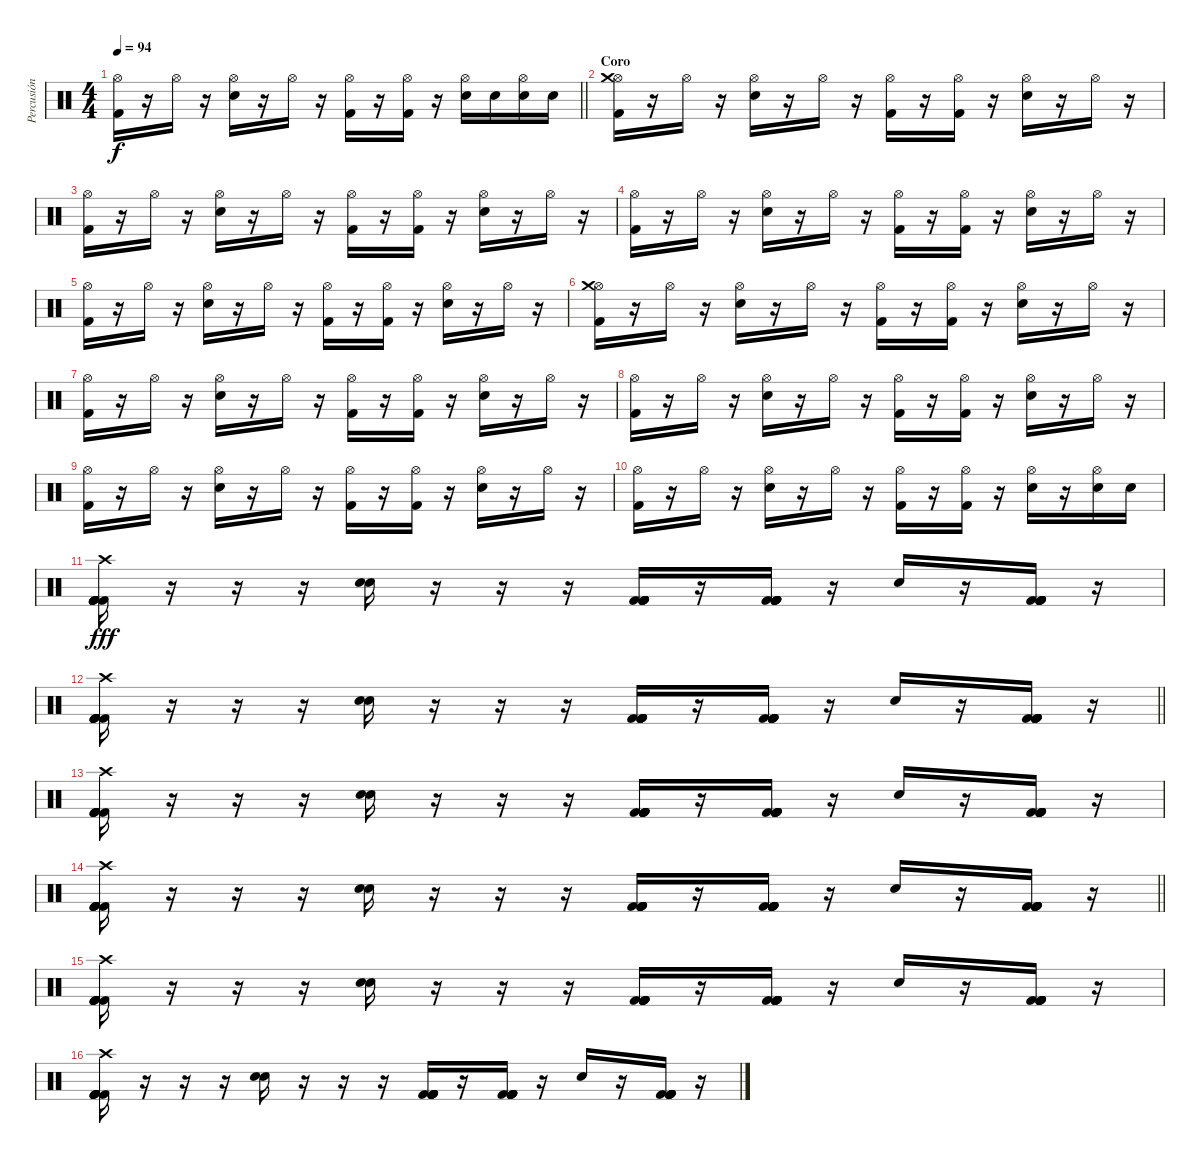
\track ("Percusión" "Percusión") {instrument percussion}
\staff {score}
\articulation defaults
\ts (4 4)
\tempo 94
\clef neutral
\barLineRight lightlight
\ks c
("Hi-Hat (open)" "Kick (hit) 2").16{dy f} r.16 "Hi-Hat (open)".16 r.16 ("Hi-Hat (open)" "Electric Snare (hit)").16 r.16 "Hi-Hat (open)".16 r.16 ("Hi-Hat (open)" "Kick (hit) 2").16 r.16 ("Hi-Hat (open)" "Kick (hit) 2").16 r.16 ("Hi-Hat (open)" "Electric Snare (hit)").16 "Electric Snare (hit)".16 ("Hi-Hat (open)" "Electric Snare (hit)").16 "Electric Snare (hit)".16 |
\section ("" "Coro")
("Hi-Hat (open)" "Kick (hit) 2" "Crash medium (hit)").16 r.16 "Hi-Hat (open)".16 r.16 ("Hi-Hat (open)" "Electric Snare (hit)").16 r.16 "Hi-Hat (open)".16 r.16 ("Hi-Hat (open)" "Kick (hit) 2").16 r.16 ("Hi-Hat (open)" "Kick (hit) 2").16 r.16 ("Hi-Hat (open)" "Electric Snare (hit)").16 r.16 "Hi-Hat (open)".16 r.16 |
("Hi-Hat (open)" "Kick (hit) 2").16 r.16 "Hi-Hat (open)".16 r.16 ("Hi-Hat (open)" "Electric Snare (hit)").16 r.16 "Hi-Hat (open)".16 r.16 ("Hi-Hat (open)" "Kick (hit) 2").16 r.16 ("Hi-Hat (open)" "Kick (hit) 2").16 r.16 ("Hi-Hat (open)" "Electric Snare (hit)").16 r.16 "Hi-Hat (open)".16 r.16 |
("Hi-Hat (open)" "Kick (hit) 2").16 r.16 "Hi-Hat (open)".16 r.16 ("Hi-Hat (open)" "Electric Snare (hit)").16 r.16 "Hi-Hat (open)".16 r.16 ("Hi-Hat (open)" "Kick (hit) 2").16 r.16 ("Hi-Hat (open)" "Kick (hit) 2").16 r.16 ("Hi-Hat (open)" "Electric Snare (hit)").16 r.16 "Hi-Hat (open)".16 r.16 |
("Hi-Hat (open)" "Kick (hit) 2").16 r.16 "Hi-Hat (open)".16 r.16 ("Hi-Hat (open)" "Electric Snare (hit)").16 r.16 "Hi-Hat (open)".16 r.16 ("Hi-Hat (open)" "Kick (hit) 2").16 r.16 ("Hi-Hat (open)" "Kick (hit) 2").16 r.16 ("Hi-Hat (open)" "Electric Snare (hit)").16 r.16 "Hi-Hat (open)".16 r.16 |
("Hi-Hat (open)" "Kick (hit) 2" "Crash medium (hit)").16 r.16 "Hi-Hat (open)".16 r.16 ("Hi-Hat (open)" "Electric Snare (hit)").16 r.16 "Hi-Hat (open)".16 r.16 ("Hi-Hat (open)" "Kick (hit) 2").16 r.16 ("Hi-Hat (open)" "Kick (hit) 2").16 r.16 ("Hi-Hat (open)" "Electric Snare (hit)").16 r.16 "Hi-Hat (open)".16 r.16 |
("Hi-Hat (open)" "Kick (hit) 2").16 r.16 "Hi-Hat (open)".16 r.16 ("Hi-Hat (open)" "Electric Snare (hit)").16 r.16 "Hi-Hat (open)".16 r.16 ("Hi-Hat (open)" "Kick (hit) 2").16 r.16 ("Hi-Hat (open)" "Kick (hit) 2").16 r.16 ("Hi-Hat (open)" "Electric Snare (hit)").16 r.16 "Hi-Hat (open)".16 r.16 |
("Hi-Hat (open)" "Kick (hit) 2").16 r.16 "Hi-Hat (open)".16 r.16 ("Hi-Hat (open)" "Electric Snare (hit)").16 r.16 "Hi-Hat (open)".16 r.16 ("Hi-Hat (open)" "Kick (hit) 2").16 r.16 ("Hi-Hat (open)" "Kick (hit) 2").16 r.16 ("Hi-Hat (open)" "Electric Snare (hit)").16 r.16 "Hi-Hat (open)".16 r.16 |
("Hi-Hat (open)" "Kick (hit) 2").16 r.16 "Hi-Hat (open)".16 r.16 ("Hi-Hat (open)" "Electric Snare (hit)").16 r.16 "Hi-Hat (open)".16 r.16 ("Hi-Hat (open)" "Kick (hit) 2").16 r.16 ("Hi-Hat (open)" "Kick (hit) 2").16 r.16 ("Hi-Hat (open)" "Electric Snare (hit)").16 r.16 "Hi-Hat (open)".16 r.16 |
("Hi-Hat (open)" "Kick (hit) 2").16 r.16 "Hi-Hat (open)".16 r.16 ("Hi-Hat (open)" "Electric Snare (hit)").16 r.16 "Hi-Hat (open)".16 r.16 ("Hi-Hat (open)" "Kick (hit) 2").16 r.16 ("Hi-Hat (open)" "Kick (hit) 2").16 r.16 ("Hi-Hat (open)" "Electric Snare (hit)").16 r.16 ("Hi-Hat (open)" "Electric Snare (hit)").16 "Electric Snare (hit)".16 |
("Crash high (hit)" "Kick (hit) 2" "Kick (hit) 2" "Kick (hit) 2" "Kick (hit) 2" "Kick (hit) 2").16{dy fff} r.16 r.16 r.16 ("Electric Snare (hit)" "Electric Snare (hit)").16 r.16 r.16 r.16 ("Kick (hit) 2" "Kick (hit) 2" "Kick (hit) 2" "Kick (hit) 2" "Kick (hit) 2" "Kick (hit) 2").16 r.16 ("Kick (hit) 2" "Kick (hit) 2" "Kick (hit) 2" "Kick (hit) 2" "Kick (hit) 2" "Kick (hit) 2").16 r.16 "Electric Snare (hit)".16 r.16 ("Kick (hit) 2" "Kick (hit) 2" "Kick (hit) 2" "Kick (hit) 2" "Kick (hit) 2" "Kick (hit) 2").16 r.16 |
\barLineRight lightlight
("Crash high (hit)" "Kick (hit) 2" "Kick (hit) 2" "Kick (hit) 2" "Kick (hit) 2" "Kick (hit) 2").16 r.16 r.16 r.16 ("Electric Snare (hit)" "Electric Snare (hit)").16 r.16 r.16 r.16 ("Kick (hit) 2" "Kick (hit) 2" "Kick (hit) 2" "Kick (hit) 2" "Kick (hit) 2" "Kick (hit) 2").16 r.16 ("Kick (hit) 2" "Kick (hit) 2" "Kick (hit) 2" "Kick (hit) 2" "Kick (hit) 2" "Kick (hit) 2").16 r.16 "Electric Snare (hit)".16 r.16 ("Kick (hit) 2" "Kick (hit) 2" "Kick (hit) 2" "Kick (hit) 2" "Kick (hit) 2" "Kick (hit) 2").16 r.16 |
("Crash high (hit)" "Kick (hit) 2" "Kick (hit) 2" "Kick (hit) 2" "Kick (hit) 2" "Kick (hit) 2").16 r.16 r.16 r.16 ("Electric Snare (hit)" "Electric Snare (hit)").16 r.16 r.16 r.16 ("Kick (hit) 2" "Kick (hit) 2" "Kick (hit) 2" "Kick (hit) 2" "Kick (hit) 2" "Kick (hit) 2").16 r.16 ("Kick (hit) 2" "Kick (hit) 2" "Kick (hit) 2" "Kick (hit) 2" "Kick (hit) 2" "Kick (hit) 2").16 r.16 "Electric Snare (hit)".16 r.16 ("Kick (hit) 2" "Kick (hit) 2" "Kick (hit) 2" "Kick (hit) 2" "Kick (hit) 2" "Kick (hit) 2").16 r.16 |
\barLineRight lightlight
("Crash high (hit)" "Kick (hit) 2" "Kick (hit) 2" "Kick (hit) 2" "Kick (hit) 2" "Kick (hit) 2").16 r.16 r.16 r.16 ("Electric Snare (hit)" "Electric Snare (hit)").16 r.16 r.16 r.16 ("Kick (hit) 2" "Kick (hit) 2" "Kick (hit) 2" "Kick (hit) 2" "Kick (hit) 2" "Kick (hit) 2").16 r.16 ("Kick (hit) 2" "Kick (hit) 2" "Kick (hit) 2" "Kick (hit) 2" "Kick (hit) 2" "Kick (hit) 2").16 r.16 "Electric Snare (hit)".16 r.16 ("Kick (hit) 2" "Kick (hit) 2" "Kick (hit) 2" "Kick (hit) 2" "Kick (hit) 2" "Kick (hit) 2").16 r.16 |
("Crash high (hit)" "Kick (hit) 2" "Kick (hit) 2" "Kick (hit) 2" "Kick (hit) 2" "Kick (hit) 2").16 r.16 r.16 r.16 ("Electric Snare (hit)" "Electric Snare (hit)").16 r.16 r.16 r.16 ("Kick (hit) 2" "Kick (hit) 2" "Kick (hit) 2" "Kick (hit) 2" "Kick (hit) 2" "Kick (hit) 2").16 r.16 ("Kick (hit) 2" "Kick (hit) 2" "Kick (hit) 2" "Kick (hit) 2" "Kick (hit) 2" "Kick (hit) 2").16 r.16 "Electric Snare (hit)".16 r.16 ("Kick (hit) 2" "Kick (hit) 2" "Kick (hit) 2" "Kick (hit) 2" "Kick (hit) 2" "Kick (hit) 2").16 r.16 |
("Crash high (hit)" "Kick (hit) 2" "Kick (hit) 2" "Kick (hit) 2" "Kick (hit) 2" "Kick (hit) 2").16 r.16 r.16 r.16 ("Electric Snare (hit)" "Electric Snare (hit)").16 r.16 r.16 r.16 ("Kick (hit) 2" "Kick (hit) 2" "Kick (hit) 2" "Kick (hit) 2" "Kick (hit) 2" "Kick (hit) 2").16 r.16 ("Kick (hit) 2" "Kick (hit) 2" "Kick (hit) 2" "Kick (hit) 2" "Kick (hit) 2" "Kick (hit) 2").16 r.16 "Electric Snare (hit)".16 r.16 ("Kick (hit) 2" "Kick (hit) 2" "Kick (hit) 2" "Kick (hit) 2" "Kick (hit) 2" "Kick (hit) 2").16 r.16
